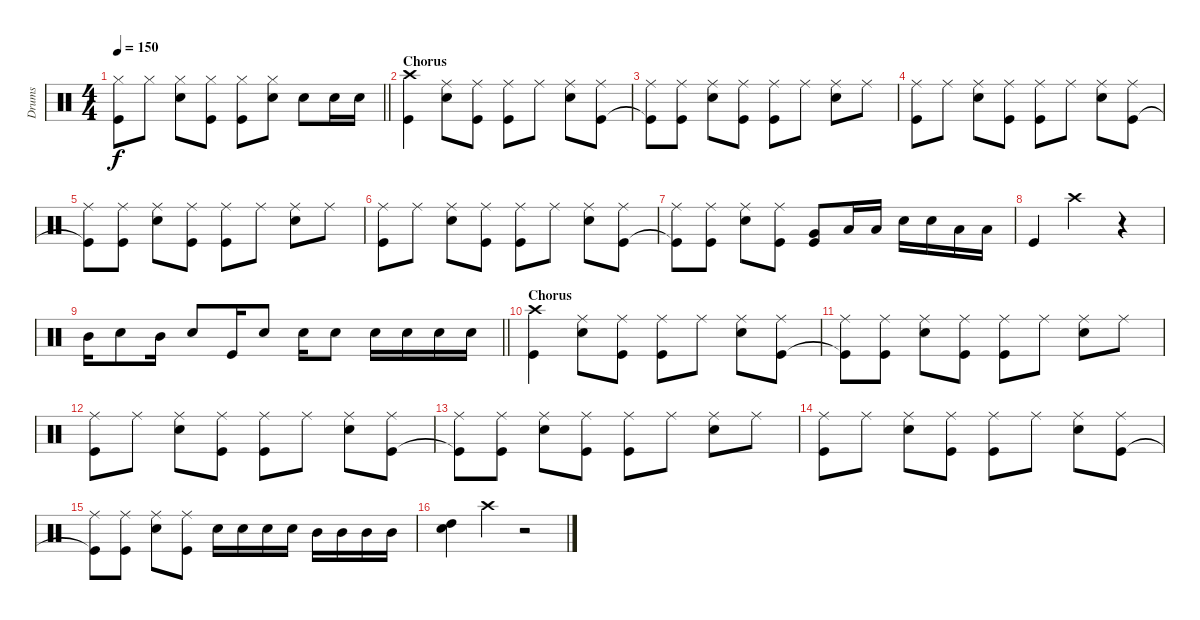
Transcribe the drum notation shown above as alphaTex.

\track ("Drums" "Drums") {instrument percussion}
\staff {score}
\articulation defaults
\ts (4 4)
\tempo 150
\clef neutral
\barLineRight lightlight
\ks c
("Hi-Hat (closed)" "Kick (hit)").8{dy f} "Hi-Hat (closed)".8 ("Hi-Hat (closed)" "Snare (hit) 2").8 ("Hi-Hat (closed)" "Kick (hit)").8 ("Hi-Hat (closed)" "Kick (hit)").8 ("Hi-Hat (closed)" "Snare (hit) 2").8 "Snare (hit) 2".8 "Snare (hit) 2".16 "Snare (hit) 2".16 |
\section ("" "Chorus")
("Crash high (hit)" "Kick (hit)").4 ("Ride (middle)" "Snare (hit) 2").8 ("Ride (middle)" "Kick (hit)").8 ("Ride (middle)" "Kick (hit)").8 "Ride (middle)".8 ("Ride (middle)" "Snare (hit) 2").8 ("Ride (middle)" "Kick (hit)").8 |
("Ride (middle)" "Kick (hit)"{t}).8 ("Ride (middle)" "Kick (hit)").8 ("Ride (middle)" "Snare (hit) 2").8 ("Ride (middle)" "Kick (hit)").8 ("Ride (middle)" "Kick (hit)").8 "Ride (middle)".8 ("Ride (middle)" "Snare (hit) 2").8 "Ride (middle)".8 |
("Ride (middle)" "Kick (hit)").8 "Ride (middle)".8 ("Ride (middle)" "Snare (hit) 2").8 ("Ride (middle)" "Kick (hit)").8 ("Ride (middle)" "Kick (hit)").8 "Ride (middle)".8 ("Ride (middle)" "Snare (hit) 2").8 ("Ride (middle)" "Kick (hit)").8 |
("Ride (middle)" "Kick (hit)"{t}).8 ("Ride (middle)" "Kick (hit)").8 ("Ride (middle)" "Snare (hit) 2").8 ("Ride (middle)" "Kick (hit)").8 ("Ride (middle)" "Kick (hit)").8 "Ride (middle)".8 ("Ride (middle)" "Snare (hit) 2").8 "Ride (middle)".8 |
("Ride (middle)" "Kick (hit)").8 "Ride (middle)".8 ("Ride (middle)" "Snare (hit) 2").8 ("Ride (middle)" "Kick (hit)").8 ("Ride (middle)" "Kick (hit)").8 "Ride (middle)".8 ("Ride (middle)" "Snare (hit) 2").8 ("Ride (middle)" "Kick (hit)").8 |
("Ride (middle)" "Kick (hit)"{t}).8 ("Ride (middle)" "Kick (hit)").8 ("Ride (middle)" "Snare (hit) 2").8 ("Ride (middle)" "Kick (hit)").8 ("Very Low Tom (hit)" "Kick (hit)").8 "Low Floor Tom (hit)".16 "Low Floor Tom (hit)".16 "Snare (hit) 2".16 "Snare (hit) 2".16 "Low Floor Tom (hit)".16 "Low Floor Tom (hit)".16 |
"Kick (hit)".4 "Crash high (hit)".2 r.4 |
\barLineRight lightlight "Mid Tom (hit)".16 "Snare (hit) 2".8 "Mid Tom (hit)".16 "Snare (hit) 2".8 "Kick (hit)".16 "Snare (hit) 2".8 "Snare (hit) 2".16 "Snare (hit) 2".8 "Snare (hit) 2".16 "Snare (hit) 2".16 "Snare (hit) 2".16 "Snare (hit) 2".16
|
\section ("" "Chorus")
("Crash high (hit)" "Kick (hit)").4 ("Ride (middle)" "Snare (hit) 2").8 ("Ride (middle)" "Kick (hit)").8 ("Ride (middle)" "Kick (hit)").8 "Ride (middle)".8 ("Ride (middle)" "Snare (hit) 2").8 ("Ride (middle)" "Kick (hit)").8 |
("Ride (middle)" "Kick (hit)"{t}).8 ("Ride (middle)" "Kick (hit)").8 ("Ride (middle)" "Snare (hit) 2").8 ("Ride (middle)" "Kick (hit)").8 ("Ride (middle)" "Kick (hit)").8 "Ride (middle)".8 ("Ride (middle)" "Snare (hit) 2").8 "Ride (middle)".8 |
("Ride (middle)" "Kick (hit)").8 "Ride (middle)".8 ("Ride (middle)" "Snare (hit) 2").8 ("Ride (middle)" "Kick (hit)").8 ("Ride (middle)" "Kick (hit)").8 "Ride (middle)".8 ("Ride (middle)" "Snare (hit) 2").8 ("Ride (middle)" "Kick (hit)").8 |
("Ride (middle)" "Kick (hit)"{t}).8 ("Ride (middle)" "Kick (hit)").8 ("Ride (middle)" "Snare (hit) 2").8 ("Ride (middle)" "Kick (hit)").8 ("Ride (middle)" "Kick (hit)").8 "Ride (middle)".8 ("Ride (middle)" "Snare (hit) 2").8 "Ride (middle)".8 |
("Ride (middle)" "Kick (hit)").8 "Ride (middle)".8 ("Ride (middle)" "Snare (hit) 2").8 ("Ride (middle)" "Kick (hit)").8 ("Ride (middle)" "Kick (hit)").8 "Ride (middle)".8 ("Ride (middle)" "Snare (hit) 2").8 ("Ride (middle)" "Kick (hit)").8 |
("Ride (middle)" "Kick (hit)"{t}).8 ("Ride (middle)" "Kick (hit)").8 ("Ride (middle)" "Snare (hit) 2").8 ("Ride (middle)" "Kick (hit)").8 "Snare (hit) 2".16 "Snare (hit) 2".16 "Snare (hit) 2".16 "Snare (hit) 2".16 "Mid Tom (hit)".16 "Mid Tom (hit)".16 "Mid Tom (hit)".16 "Mid Tom (hit)".16 |
("High Tom (hit)" "Snare (hit) 2").4 "Crash high (hit)".4 r.2
